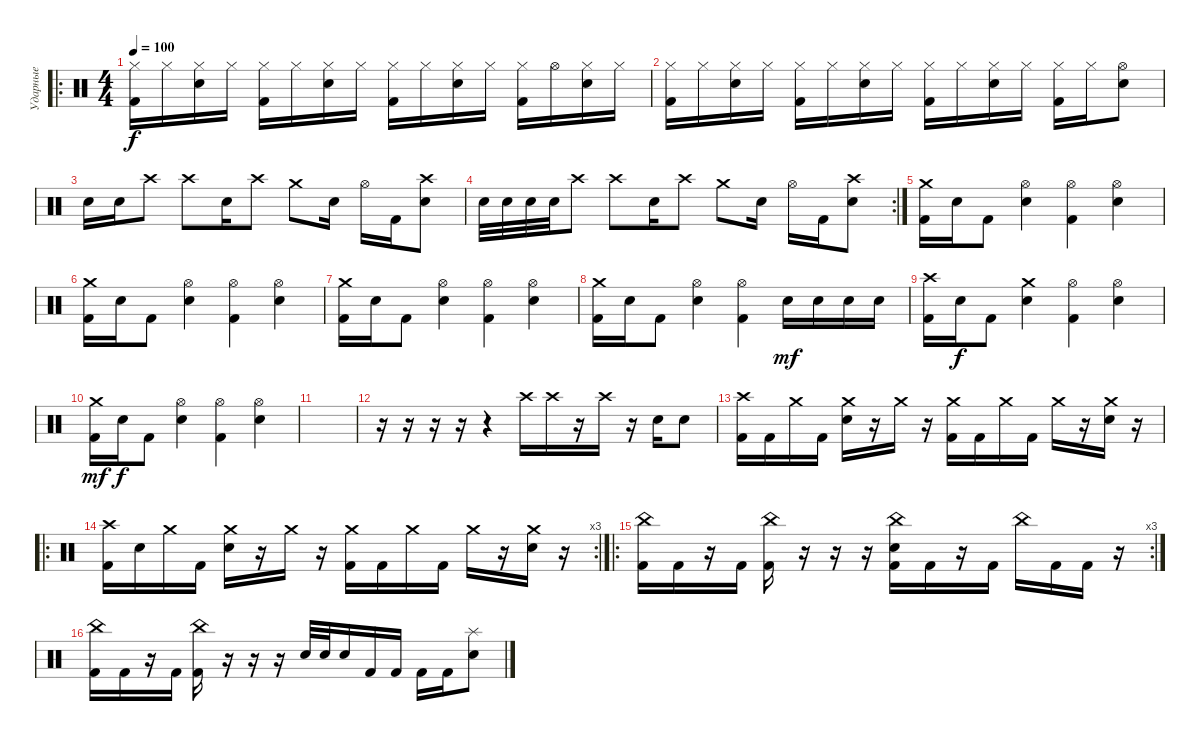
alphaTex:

\track ("Ударные" "Ударные") {instrument percussion}
\staff {score}
\articulation defaults
\ro
\ts (4 4)
\tempo 100
\clef neutral
\ks c
("Hi-Hat (closed)" "Kick (hit) 2").16{dy f} "Hi-Hat (closed)".16 ("Hi-Hat (closed)" "Electric Snare (hit)").16 "Hi-Hat (closed)".16 ("Hi-Hat (closed)" "Kick (hit) 2").16 "Hi-Hat (closed)".16 ("Hi-Hat (closed)" "Electric Snare (hit)").16 "Hi-Hat (closed)".16 ("Hi-Hat (closed)" "Kick (hit) 2").16 "Hi-Hat (closed)".16 ("Hi-Hat (closed)" "Electric Snare (hit)").16 "Hi-Hat (closed)".16 ("Hi-Hat (closed)" "Kick (hit) 2").16 "Hi-Hat (open)".16 ("Hi-Hat (closed)" "Electric Snare (hit)").16 "Hi-Hat (closed)".16 |
("Hi-Hat (closed)" "Kick (hit) 2").16 "Hi-Hat (closed)".16 ("Hi-Hat (closed)" "Electric Snare (hit)").16 "Hi-Hat (closed)".16 ("Hi-Hat (closed)" "Kick (hit) 2").16 "Hi-Hat (closed)".16 ("Hi-Hat (closed)" "Electric Snare (hit)").16 "Hi-Hat (closed)".16 ("Hi-Hat (closed)" "Kick (hit) 2").16 "Hi-Hat (closed)".16 ("Hi-Hat (closed)" "Electric Snare (hit)").16 "Hi-Hat (closed)".16 ("Hi-Hat (closed)" "Kick (hit) 2").16 "Hi-Hat (closed)".16 ("Electric Snare (hit)" "Hi-Hat (open)").8 |
"Electric Snare (hit)".16 "Electric Snare (hit)".16 "Crash high (hit)".8 "Crash high (hit)".8 "Electric Snare (hit)".16 "Crash high (hit)".8 "Crash medium (hit)".8 "Electric Snare (hit)".16 "Hi-Hat (open)".16 "Kick (hit) 2".16 ("Crash high (hit)" "Electric Snare (hit)").8 |
\rc 2 "Electric Snare (hit)".32 "Electric Snare (hit)".32 "Electric Snare (hit)".32 "Electric Snare (hit)".32 "Crash high (hit)".8 "Crash high (hit)".8 "Electric Snare (hit)".16 "Crash high (hit)".8 "Crash medium (hit)".8 "Electric Snare (hit)".16 "Hi-Hat (open)".16 "Kick (hit) 2".16
("Crash high (hit)" "Electric Snare (hit)").8 |
("Kick (hit) 2" "Crash medium (hit)").16 "Electric Snare (hit)".16 "Kick (hit) 2".8 ("Electric Snare (hit)" "Hi-Hat (open)").4 ("Hi-Hat (open)" "Kick (hit) 2").4 ("Hi-Hat (open)" "Electric Snare (hit)").4 |
("Kick (hit) 2" "Crash medium (hit)").16 "Electric Snare (hit)".16 "Kick (hit) 2".8 ("Electric Snare (hit)" "Hi-Hat (open)").4 ("Hi-Hat (open)" "Kick (hit) 2").4 ("Hi-Hat (open)" "Electric Snare (hit)").4 |
("Kick (hit) 2" "Crash medium (hit)").16 "Electric Snare (hit)".16 "Kick (hit) 2".8 ("Electric Snare (hit)" "Hi-Hat (open)").4 ("Hi-Hat (open)" "Kick (hit) 2").4 ("Hi-Hat (open)" "Electric Snare (hit)").4 |
("Kick (hit) 2" "Crash medium (hit)").16 "Electric Snare (hit)".16 "Kick (hit) 2".8 ("Electric Snare (hit)" "Hi-Hat (open)").4 ("Hi-Hat (open)" "Kick (hit) 2").4 "Electric Snare (hit)".16{dy mf} "Electric Snare (hit)".16 "Electric Snare (hit)".16 "Electric Snare (hit)".16 |
("Kick (hit) 2" "Crash high (hit)").16 "Electric Snare (hit)".16{dy f} "Kick (hit) 2".8 ("Electric Snare (hit)" "Crash medium (hit)").4 ("Hi-Hat (open)" "Kick (hit) 2").4 ("Hi-Hat (open)" "Electric Snare (hit)").4 |
("Kick (hit) 2" "Crash medium (hit)").16{dy mf} "Electric Snare (hit)".16{dy f} "Kick (hit) 2".8 ("Electric Snare (hit)" "Hi-Hat (open)").4 ("Hi-Hat (open)" "Kick (hit) 2").4 ("Hi-Hat (open)" "Electric Snare (hit)").4 |
|
r.16 r.16 r.16 r.16 r.4 "Crash high (hit)".16 "Crash high (hit)".16 r.16 "Crash high (hit)".16 r.16 "Electric Snare (hit)".16 "Electric Snare (hit)".8 |
("Crash high (hit)" "Kick (hit) 2").16 "Kick (hit) 2".16 "Crash medium (hit)".16 "Kick (hit) 2".16 ("Crash medium (hit)" "Electric Snare (hit)").16 r.16 "Crash medium (hit)".16 r.16 ("Crash medium (hit)" "Kick (hit) 2").16 "Kick (hit) 2".16 "Crash medium (hit)".16 "Kick (hit) 2".16 "Crash medium (hit)".16 r.16 ("Crash medium (hit)" "Electric Snare (hit)").16 r.16 |
\ro
\rc 3
("Crash high (hit)" "Kick (hit) 2").16 "Electric Snare (hit)".16 "Crash medium (hit)".16 "Kick (hit) 2".16 ("Crash medium (hit)" "Electric Snare (hit)").16 r.16 "Crash medium (hit)".16 r.16 ("Crash medium (hit)" "Kick (hit) 2").16 "Kick (hit) 2".16 "Crash medium (hit)".16 "Kick (hit) 2".16 "Crash medium (hit)".16 r.16 ("Crash medium (hit)" "Electric Snare (hit)").16 r.16 |
\ro
\rc 3
("China (hit)" "Kick (hit) 2").16 "Kick (hit) 2".16 r.16 "Kick (hit) 2".16 ("China (hit)" "Kick (hit) 2").16 r.16 r.16 r.16 ("China (hit)" "Kick (hit) 2" "Electric Snare (hit)").16 "Kick (hit) 2".16 r.16 "Kick (hit) 2".16 "China (hit)".16 "Kick (hit) 2".16 "Kick (hit) 2".16 r.16 |
("China (hit)" "Kick (hit) 2").16 "Kick (hit) 2".16 r.16 "Kick (hit) 2".16 ("China (hit)" "Kick (hit) 2").16 r.16 r.16 r.16 "Electric Snare (hit)".32 "Electric Snare (hit)".32 "Electric Snare (hit)".16 "Kick (hit) 2".16 "Kick (hit) 2".16 "Kick (hit) 2".16 "Kick (hit) 2".16 ("Electric Snare (hit)" "Splash (hit)").8
